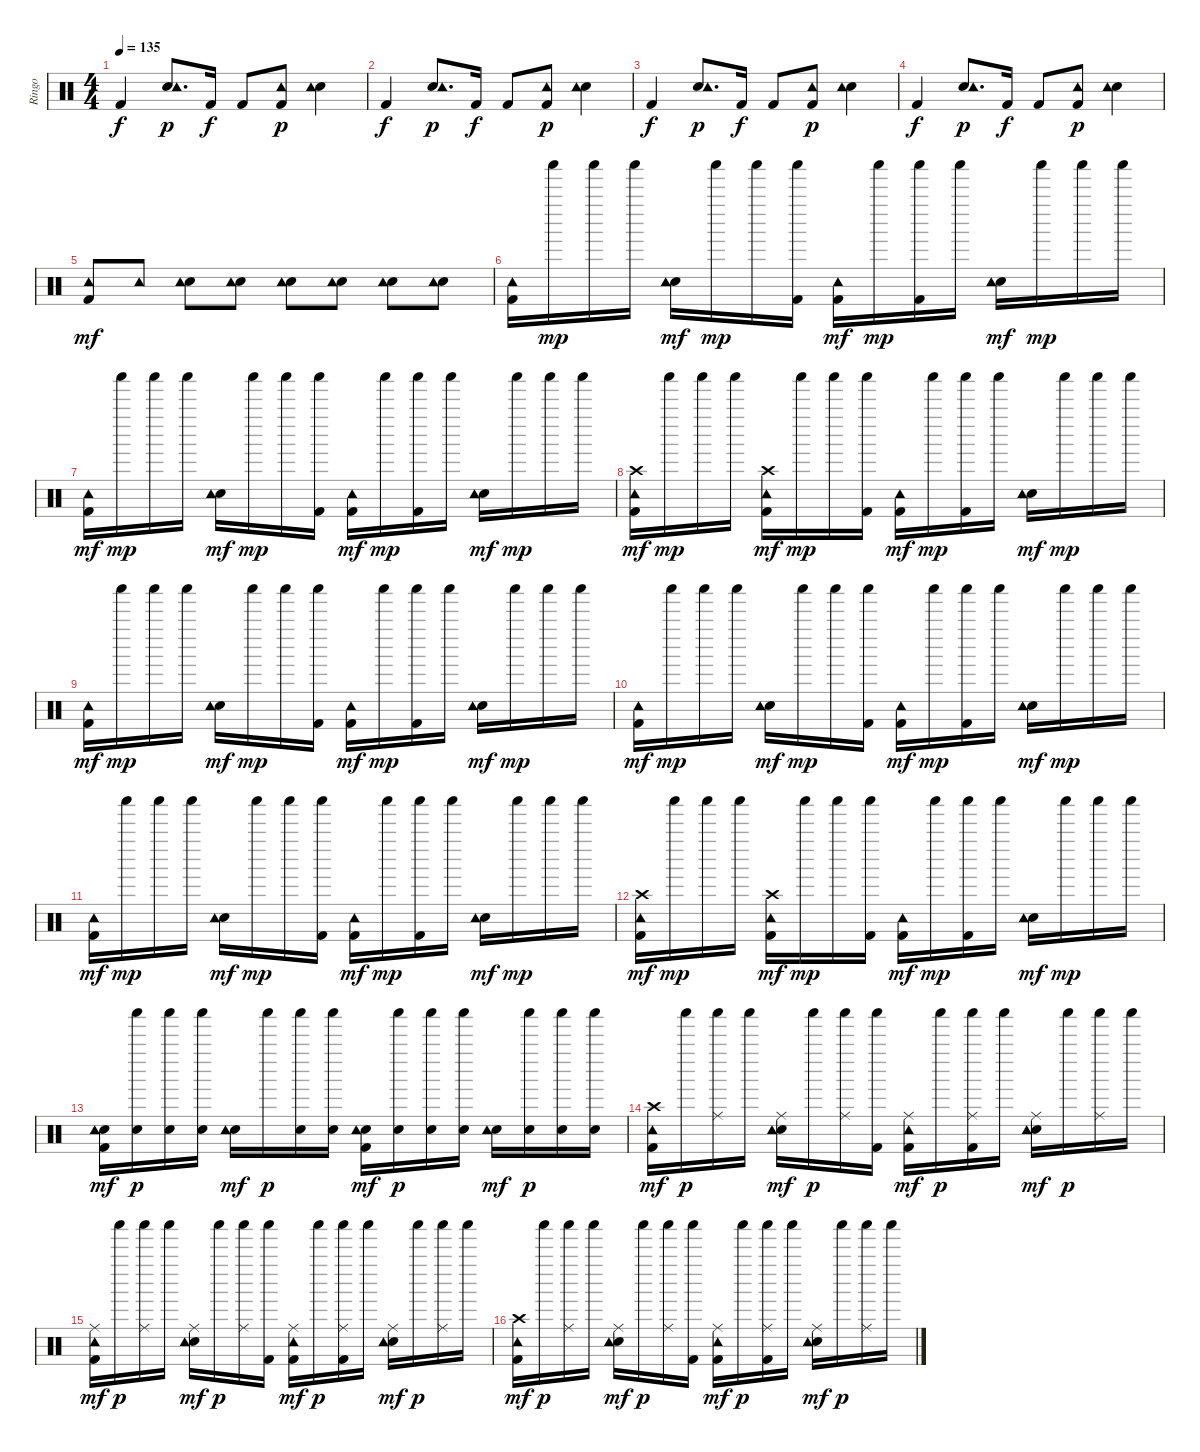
\track ("Ringo" "Ringo") {instrument percussion}
\staff {score}
\articulation defaults
\ts (4 4)
\tempo 135
\clef neutral
\ks c "Kick (hit) 2".4{dy f}
("Electric Snare (hit)" "Tambourine (hit)").8{d dy p} "Kick (hit) 2".16{dy f} "Kick (hit) 2".8 ("Kick (hit) 2" "Tambourine (hit)").8{dy p} ("Electric Snare (hit)" "Tambourine (hit)").4 |
"Kick (hit) 2".4{dy f} ("Electric Snare (hit)" "Tambourine (hit)").8{d dy p} "Kick (hit) 2".16{dy f} "Kick (hit) 2".8 ("Kick (hit) 2" "Tambourine (hit)").8{dy p} ("Electric Snare (hit)" "Tambourine (hit)").4 |
"Kick (hit) 2".4{dy f} ("Electric Snare (hit)" "Tambourine (hit)").8{d dy p} "Kick (hit) 2".16{dy f} "Kick (hit) 2".8 ("Kick (hit) 2" "Tambourine (hit)").8{dy p} ("Electric Snare (hit)" "Tambourine (hit)").4 |
"Kick (hit) 2".4{dy f} ("Electric Snare (hit)" "Tambourine (hit)").8{d dy p} "Kick (hit) 2".16{dy f} "Kick (hit) 2".8 ("Kick (hit) 2" "Tambourine (hit)").8{dy p} ("Electric Snare (hit)" "Tambourine (hit)").4 |
("Kick (hit) 2" "Tambourine (hit)").8{dy mf} "Tambourine (hit)".8 ("Electric Snare (hit)" "Tambourine (hit)").8 ("Electric Snare (hit)" "Tambourine (hit)").8 ("Electric Snare (hit)" "Tambourine (hit)").8 ("Electric Snare (hit)" "Tambourine (hit)").8 ("Electric Snare (hit)" "Tambourine (hit)").8 ("Electric Snare (hit)" "Tambourine (hit)").8 |
("Kick (hit) 2" "Tambourine (hit)").16 "Shaker (hit)".16{dy mp} "Shaker (hit)".16 "Shaker (hit)".16 ("Electric Snare (hit)" "Tambourine (hit)").16{dy mf} "Shaker (hit)".16{dy mp} "Shaker (hit)".16 ("Kick (hit) 2" "Shaker (hit)").16 ("Kick (hit) 2" "Tambourine (hit)").16{dy mf} "Shaker (hit)".16{dy mp} ("Kick (hit) 2" "Shaker (hit)").16 "Shaker (hit)".16 ("Electric Snare (hit)" "Tambourine (hit)").16{dy mf} "Shaker (hit)".16{dy mp} "Shaker (hit)".16 "Shaker (hit)".16 |
("Kick (hit) 2" "Tambourine (hit)").16{dy mf} "Shaker (hit)".16{dy mp} "Shaker (hit)".16 "Shaker (hit)".16 ("Electric Snare (hit)" "Tambourine (hit)").16{dy mf} "Shaker (hit)".16{dy mp} "Shaker (hit)".16 ("Kick (hit) 2" "Shaker (hit)").16 ("Kick (hit) 2" "Tambourine (hit)").16{dy mf} "Shaker (hit)".16{dy mp} ("Kick (hit) 2" "Shaker (hit)").16 "Shaker (hit)".16 ("Electric Snare (hit)" "Tambourine (hit)").16{dy mf} "Shaker (hit)".16{dy mp} "Shaker (hit)".16 "Shaker (hit)".16 |
("Kick (hit) 2" "Tambourine (hit)" "Crash high (hit)").16{dy mf} "Shaker (hit)".16{dy mp} "Shaker (hit)".16 "Shaker (hit)".16 ("Kick (hit) 2" "Tambourine (hit)" "Crash high (hit)").16{dy mf} "Shaker (hit)".16{dy mp} "Shaker (hit)".16 ("Kick (hit) 2" "Shaker (hit)").16 ("Kick (hit) 2" "Tambourine (hit)").16{dy mf} "Shaker (hit)".16{dy mp} ("Kick (hit) 2" "Shaker (hit)").16 "Shaker (hit)".16 ("Electric Snare (hit)" "Tambourine (hit)").16{dy mf} "Shaker (hit)".16{dy mp} "Shaker (hit)".16 "Shaker (hit)".16 |
("Kick (hit) 2" "Tambourine (hit)").16{dy mf} "Shaker (hit)".16{dy mp} "Shaker (hit)".16 "Shaker (hit)".16 ("Electric Snare (hit)" "Tambourine (hit)").16{dy mf} "Shaker (hit)".16{dy mp} "Shaker (hit)".16 ("Kick (hit) 2" "Shaker (hit)").16 ("Kick (hit) 2" "Tambourine (hit)").16{dy mf} "Shaker (hit)".16{dy mp} ("Kick (hit) 2" "Shaker (hit)").16 "Shaker (hit)".16 ("Electric Snare (hit)" "Tambourine (hit)").16{dy mf} "Shaker (hit)".16{dy mp} "Shaker (hit)".16 "Shaker (hit)".16 |
("Kick (hit) 2" "Tambourine (hit)").16{dy mf} "Shaker (hit)".16{dy mp} "Shaker (hit)".16 "Shaker (hit)".16 ("Electric Snare (hit)" "Tambourine (hit)").16{dy mf} "Shaker (hit)".16{dy mp} "Shaker (hit)".16 ("Kick (hit) 2" "Shaker (hit)").16 ("Kick (hit) 2" "Tambourine (hit)").16{dy mf} "Shaker (hit)".16{dy mp} ("Kick (hit) 2" "Shaker (hit)").16 "Shaker (hit)".16 ("Electric Snare (hit)" "Tambourine (hit)").16{dy mf} "Shaker (hit)".16{dy mp} "Shaker (hit)".16 "Shaker (hit)".16 |
("Kick (hit) 2" "Tambourine (hit)").16{dy mf} "Shaker (hit)".16{dy mp} "Shaker (hit)".16 "Shaker (hit)".16 ("Electric Snare (hit)" "Tambourine (hit)").16{dy mf} "Shaker (hit)".16{dy mp} "Shaker (hit)".16 ("Kick (hit) 2" "Shaker (hit)").16 ("Kick (hit) 2" "Tambourine (hit)").16{dy mf} "Shaker (hit)".16{dy mp} ("Kick (hit) 2" "Shaker (hit)").16 "Shaker (hit)".16 ("Electric Snare (hit)" "Tambourine (hit)").16{dy mf} "Shaker (hit)".16{dy mp} "Shaker (hit)".16 "Shaker (hit)".16 |
("Kick (hit) 2" "Tambourine (hit)" "Crash high (hit)").16{dy mf} "Shaker (hit)".16{dy mp} "Shaker (hit)".16 "Shaker (hit)".16 ("Kick (hit) 2" "Tambourine (hit)" "Crash high (hit)").16{dy mf} "Shaker (hit)".16{dy mp} "Shaker (hit)".16 ("Kick (hit) 2" "Shaker (hit)").16 ("Kick (hit) 2" "Tambourine (hit)").16{dy mf} "Shaker (hit)".16{dy mp} ("Kick (hit) 2" "Shaker (hit)").16 "Shaker (hit)".16 ("Electric Snare (hit)" "Tambourine (hit)").16{dy mf} "Shaker (hit)".16{dy mp} "Shaker (hit)".16 "Shaker (hit)".16 |
("Electric Snare (hit)" "Kick (hit) 2" "Tambourine (hit)").16{dy mf} ("Electric Snare (hit)" "Shaker (hit)").16{dy p} ("Electric Snare (hit)" "Shaker (hit)").16 ("Electric Snare (hit)" "Shaker (hit)").16 ("Electric Snare (hit)" "Tambourine (hit)").16{dy mf} "Shaker (hit)".16{dy p} ("Electric Snare (hit)" "Shaker (hit)").16 ("Electric Snare (hit)" "Shaker (hit)").16 ("Electric Snare (hit)" "Kick (hit) 2" "Tambourine (hit)").16{dy mf} ("Electric Snare (hit)" "Shaker (hit)").16{dy p} ("Electric Snare (hit)" "Shaker (hit)").16 ("Electric Snare (hit)" "Shaker (hit)").16 ("Electric Snare (hit)" "Tambourine (hit)").16{dy mf} ("Electric Snare (hit)" "Shaker (hit)").16{dy p} ("Electric Snare (hit)" "Shaker (hit)").16 ("Electric Snare (hit)" "Shaker (hit)").16 |
("Crash high (hit)" "Kick (hit) 2" "Tambourine (hit)").16{dy mf} "Shaker (hit)".16{dy p} ("Ride (middle)" "Shaker (hit)").16 "Shaker (hit)".16 ("Ride (middle)" "Electric Snare (hit)" "Tambourine (hit)").16{dy mf} "Shaker (hit)".16{dy p} ("Ride (middle)" "Shaker (hit)").16 ("Kick (hit) 2" "Shaker (hit)").16 ("Ride (middle)" "Kick (hit) 2" "Tambourine (hit)").16{dy mf} "Shaker (hit)".16{dy p} ("Ride (middle)" "Kick (hit) 2" "Shaker (hit)").16 "Shaker (hit)".16 ("Ride (middle)" "Electric Snare (hit)" "Tambourine (hit)").16{dy mf} "Shaker (hit)".16{dy p} ("Ride (middle)" "Shaker (hit)").16 "Shaker (hit)".16 |
("Ride (middle)" "Kick (hit) 2" "Tambourine (hit)").16{dy mf} "Shaker (hit)".16{dy p} ("Ride (middle)" "Shaker (hit)").16 "Shaker (hit)".16 ("Ride (middle)" "Electric Snare (hit)" "Tambourine (hit)").16{dy mf} "Shaker (hit)".16{dy p} ("Ride (middle)" "Shaker (hit)").16 ("Kick (hit) 2" "Shaker (hit)").16 ("Ride (middle)" "Kick (hit) 2" "Tambourine (hit)").16{dy mf} "Shaker (hit)".16{dy p} ("Ride (middle)" "Kick (hit) 2" "Shaker (hit)").16 "Shaker (hit)".16 ("Ride (middle)" "Electric Snare (hit)" "Tambourine (hit)").16{dy mf} "Shaker (hit)".16{dy p} ("Ride (middle)" "Shaker (hit)").16 "Shaker (hit)".16 |
("Crash high (hit)" "Kick (hit) 2" "Tambourine (hit)").16{dy mf} "Shaker (hit)".16{dy p} ("Ride (middle)" "Shaker (hit)").16 "Shaker (hit)".16 ("Ride (middle)" "Electric Snare (hit)" "Tambourine (hit)").16{dy mf} "Shaker (hit)".16{dy p} ("Ride (middle)" "Shaker (hit)").16 ("Kick (hit) 2" "Shaker (hit)").16 ("Ride (middle)" "Kick (hit) 2" "Tambourine (hit)").16{dy mf} "Shaker (hit)".16{dy p} ("Ride (middle)" "Kick (hit) 2" "Shaker (hit)").16 "Shaker (hit)".16 ("Ride (middle)" "Electric Snare (hit)" "Tambourine (hit)").16{dy mf} "Shaker (hit)".16{dy p} ("Ride (middle)" "Shaker (hit)").16 "Shaker (hit)".16
